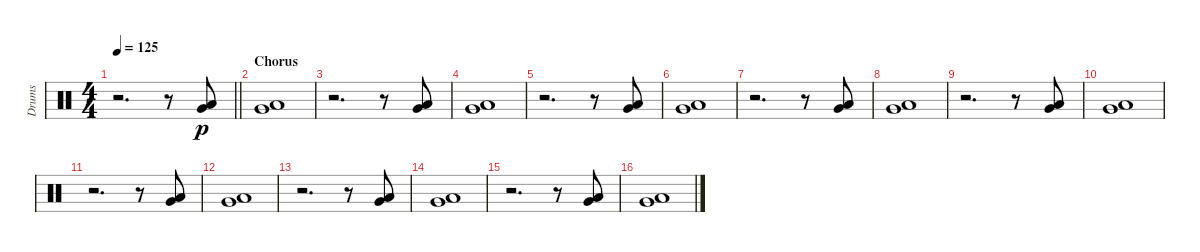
\track ("Drums" "Drums") {instrument percussion}
\staff {score}
\articulation defaults
\ts (4 4)
\tempo 125
\clef neutral
\barLineRight lightlight
\ks c
r.2{d dy p} r.8 ("Very Low Tom (hit)" "Low Floor Tom (hit)").8 |
\section ("" "Chorus")
("Very Low Tom (hit)" "Low Floor Tom (hit)").1 |
r.2{d} r.8 ("Very Low Tom (hit)" "Low Floor Tom (hit)").8 |
("Very Low Tom (hit)" "Low Floor Tom (hit)").1 |
r.2{d} r.8 ("Very Low Tom (hit)" "Low Floor Tom (hit)").8 |
("Very Low Tom (hit)" "Low Floor Tom (hit)").1 |
r.2{d} r.8 ("Very Low Tom (hit)" "Low Floor Tom (hit)").8 |
("Very Low Tom (hit)" "Low Floor Tom (hit)").1 |
r.2{d} r.8 ("Very Low Tom (hit)" "Low Floor Tom (hit)").8 |
("Very Low Tom (hit)" "Low Floor Tom (hit)").1 |
r.2{d} r.8 ("Very Low Tom (hit)" "Low Floor Tom (hit)").8 |
("Very Low Tom (hit)" "Low Floor Tom (hit)").1 |
r.2{d} r.8 ("Very Low Tom (hit)" "Low Floor Tom (hit)").8 |
("Very Low Tom (hit)" "Low Floor Tom (hit)").1 |
r.2{d} r.8 ("Very Low Tom (hit)" "Low Floor Tom (hit)").8 |
("Very Low Tom (hit)" "Low Floor Tom (hit)").1
